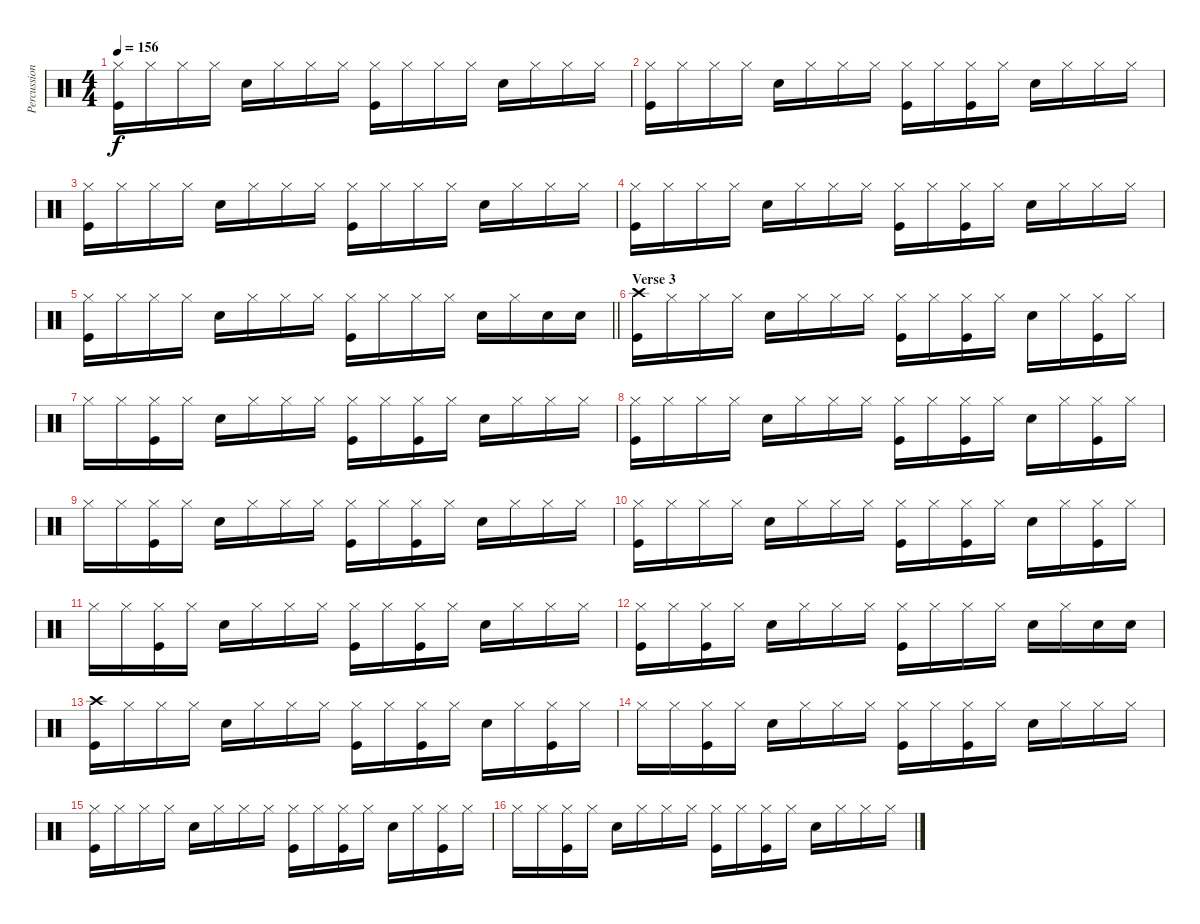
\track ("Percussion" "Percussion") {instrument percussion}
\staff {score}
\articulation defaults
\ts (4 4)
\tempo 156
\clef neutral
\ks c
("Hi-Hat (closed)" "Kick (hit)").16{dy f} "Hi-Hat (closed)".16 "Hi-Hat (closed)".16 "Hi-Hat (closed)".16 "Snare (hit) 2".16 "Hi-Hat (closed)".16 "Hi-Hat (closed)".16 "Hi-Hat (closed)".16 ("Hi-Hat (closed)" "Kick (hit)").16 "Hi-Hat (closed)".16 "Hi-Hat (closed)".16 "Hi-Hat (closed)".16 "Snare (hit) 2".16 "Hi-Hat (closed)".16 "Hi-Hat (closed)".16 "Hi-Hat (closed)".16 |
("Hi-Hat (closed)" "Kick (hit)").16 "Hi-Hat (closed)".16 "Hi-Hat (closed)".16 "Hi-Hat (closed)".16 "Snare (hit) 2".16 "Hi-Hat (closed)".16 "Hi-Hat (closed)".16 "Hi-Hat (closed)".16 ("Hi-Hat (closed)" "Kick (hit)").16 "Hi-Hat (closed)".16 ("Hi-Hat (closed)" "Kick (hit)").16 "Hi-Hat (closed)".16 "Snare (hit) 2".16 "Hi-Hat (closed)".16 "Hi-Hat (closed)".16 "Hi-Hat (closed)".16 |
("Hi-Hat (closed)" "Kick (hit)").16 "Hi-Hat (closed)".16 "Hi-Hat (closed)".16 "Hi-Hat (closed)".16 "Snare (hit) 2".16 "Hi-Hat (closed)".16 "Hi-Hat (closed)".16 "Hi-Hat (closed)".16 ("Hi-Hat (closed)" "Kick (hit)").16 "Hi-Hat (closed)".16 "Hi-Hat (closed)".16 "Hi-Hat (closed)".16 "Snare (hit) 2".16 "Hi-Hat (closed)".16 "Hi-Hat (closed)".16 "Hi-Hat (closed)".16 |
("Hi-Hat (closed)" "Kick (hit)").16 "Hi-Hat (closed)".16 "Hi-Hat (closed)".16 "Hi-Hat (closed)".16 "Snare (hit) 2".16 "Hi-Hat (closed)".16 "Hi-Hat (closed)".16 "Hi-Hat (closed)".16 ("Hi-Hat (closed)" "Kick (hit)").16 "Hi-Hat (closed)".16 ("Hi-Hat (closed)" "Kick (hit)").16 "Hi-Hat (closed)".16 "Snare (hit) 2".16 "Hi-Hat (closed)".16 "Hi-Hat (closed)".16 "Hi-Hat (closed)".16 |
\barLineRight lightlight
("Hi-Hat (closed)" "Kick (hit)").16 "Hi-Hat (closed)".16 "Hi-Hat (closed)".16 "Hi-Hat (closed)".16 "Snare (hit) 2".16 "Hi-Hat (closed)".16 "Hi-Hat (closed)".16 "Hi-Hat (closed)".16 ("Hi-Hat (closed)" "Kick (hit)").16 "Hi-Hat (closed)".16 "Hi-Hat (closed)".16 "Hi-Hat (closed)".16 "Snare (hit) 2".16 "Hi-Hat (closed)".16 "Snare (hit) 2".16 "Snare (hit) 2".16 |
\section ("" "Verse 3")
("Crash high (hit)" "Kick (hit)").16 "Hi-Hat (closed)".16 "Hi-Hat (closed)".16 "Hi-Hat (closed)".16 "Snare (hit) 2".16 "Hi-Hat (closed)".16 "Hi-Hat (closed)".16 "Hi-Hat (closed)".16 ("Hi-Hat (closed)" "Kick (hit)").16 "Hi-Hat (closed)".16 ("Hi-Hat (closed)" "Kick (hit)").16 "Hi-Hat (closed)".16 "Snare (hit) 2".16 "Hi-Hat (closed)".16 ("Hi-Hat (closed)" "Kick (hit)").16 "Hi-Hat (closed)".16 |
"Hi-Hat (closed)".16 "Hi-Hat (closed)".16 ("Hi-Hat (closed)" "Kick (hit)").16 "Hi-Hat (closed)".16 "Snare (hit) 2".16 "Hi-Hat (closed)".16 "Hi-Hat (closed)".16 "Hi-Hat (closed)".16 ("Hi-Hat (closed)" "Kick (hit)").16 "Hi-Hat (closed)".16 ("Hi-Hat (closed)" "Kick (hit)").16 "Hi-Hat (closed)".16 "Snare (hit) 2".16 "Hi-Hat (closed)".16 "Hi-Hat (closed)".16 "Hi-Hat (closed)".16 |
("Hi-Hat (closed)" "Kick (hit)").16 "Hi-Hat (closed)".16 "Hi-Hat (closed)".16 "Hi-Hat (closed)".16 "Snare (hit) 2".16 "Hi-Hat (closed)".16 "Hi-Hat (closed)".16 "Hi-Hat (closed)".16 ("Hi-Hat (closed)" "Kick (hit)").16 "Hi-Hat (closed)".16 ("Hi-Hat (closed)" "Kick (hit)").16 "Hi-Hat (closed)".16 "Snare (hit) 2".16 "Hi-Hat (closed)".16 ("Hi-Hat (closed)" "Kick (hit)").16 "Hi-Hat (closed)".16 |
"Hi-Hat (closed)".16 "Hi-Hat (closed)".16 ("Hi-Hat (closed)" "Kick (hit)").16 "Hi-Hat (closed)".16 "Snare (hit) 2".16 "Hi-Hat (closed)".16 "Hi-Hat (closed)".16 "Hi-Hat (closed)".16 ("Hi-Hat (closed)" "Kick (hit)").16 "Hi-Hat (closed)".16 ("Hi-Hat (closed)" "Kick (hit)").16 "Hi-Hat (closed)".16 "Snare (hit) 2".16 "Hi-Hat (closed)".16 "Hi-Hat (closed)".16 "Hi-Hat (closed)".16 |
("Hi-Hat (closed)" "Kick (hit)").16 "Hi-Hat (closed)".16 "Hi-Hat (closed)".16 "Hi-Hat (closed)".16 "Snare (hit) 2".16 "Hi-Hat (closed)".16 "Hi-Hat (closed)".16 "Hi-Hat (closed)".16 ("Hi-Hat (closed)" "Kick (hit)").16 "Hi-Hat (closed)".16 ("Hi-Hat (closed)" "Kick (hit)").16 "Hi-Hat (closed)".16 "Snare (hit) 2".16 "Hi-Hat (closed)".16 ("Hi-Hat (closed)" "Kick (hit)").16 "Hi-Hat (closed)".16 |
"Hi-Hat (closed)".16 "Hi-Hat (closed)".16 ("Hi-Hat (closed)" "Kick (hit)").16 "Hi-Hat (closed)".16 "Snare (hit) 2".16 "Hi-Hat (closed)".16 "Hi-Hat (closed)".16 "Hi-Hat (closed)".16 ("Hi-Hat (closed)" "Kick (hit)").16 "Hi-Hat (closed)".16 ("Hi-Hat (closed)" "Kick (hit)").16 "Hi-Hat (closed)".16 "Snare (hit) 2".16 "Hi-Hat (closed)".16 "Hi-Hat (closed)".16 "Hi-Hat (closed)".16 |
("Hi-Hat (closed)" "Kick (hit)").16 "Hi-Hat (closed)".16 ("Hi-Hat (closed)" "Kick (hit)").16 "Hi-Hat (closed)".16 "Snare (hit) 2".16 "Hi-Hat (closed)".16 "Hi-Hat (closed)".16 "Hi-Hat (closed)".16 ("Hi-Hat (closed)" "Kick (hit)").16 "Hi-Hat (closed)".16 "Hi-Hat (closed)".16 "Hi-Hat (closed)".16 "Snare (hit) 2".16 "Hi-Hat (closed)".16 "Snare (hit) 2".16 "Snare (hit) 2".16 |
("Crash high (hit)" "Kick (hit)").16 "Hi-Hat (closed)".16 "Hi-Hat (closed)".16 "Hi-Hat (closed)".16 "Snare (hit) 2".16 "Hi-Hat (closed)".16 "Hi-Hat (closed)".16 "Hi-Hat (closed)".16 ("Hi-Hat (closed)" "Kick (hit)").16 "Hi-Hat (closed)".16 ("Hi-Hat (closed)" "Kick (hit)").16 "Hi-Hat (closed)".16 "Snare (hit) 2".16 "Hi-Hat (closed)".16 ("Hi-Hat (closed)" "Kick (hit)").16 "Hi-Hat (closed)".16 |
"Hi-Hat (closed)".16 "Hi-Hat (closed)".16 ("Hi-Hat (closed)" "Kick (hit)").16 "Hi-Hat (closed)".16 "Snare (hit) 2".16 "Hi-Hat (closed)".16 "Hi-Hat (closed)".16 "Hi-Hat (closed)".16 ("Hi-Hat (closed)" "Kick (hit)").16 "Hi-Hat (closed)".16 ("Hi-Hat (closed)" "Kick (hit)").16 "Hi-Hat (closed)".16 "Snare (hit) 2".16 "Hi-Hat (closed)".16 "Hi-Hat (closed)".16 "Hi-Hat (closed)".16 |
("Hi-Hat (closed)" "Kick (hit)").16 "Hi-Hat (closed)".16 "Hi-Hat (closed)".16 "Hi-Hat (closed)".16 "Snare (hit) 2".16 "Hi-Hat (closed)".16 "Hi-Hat (closed)".16 "Hi-Hat (closed)".16 ("Hi-Hat (closed)" "Kick (hit)").16 "Hi-Hat (closed)".16 ("Hi-Hat (closed)" "Kick (hit)").16 "Hi-Hat (closed)".16 "Snare (hit) 2".16 "Hi-Hat (closed)".16 ("Hi-Hat (closed)" "Kick (hit)").16 "Hi-Hat (closed)".16 |
"Hi-Hat (closed)".16 "Hi-Hat (closed)".16 ("Hi-Hat (closed)" "Kick (hit)").16 "Hi-Hat (closed)".16 "Snare (hit) 2".16 "Hi-Hat (closed)".16 "Hi-Hat (closed)".16 "Hi-Hat (closed)".16 ("Hi-Hat (closed)" "Kick (hit)").16 "Hi-Hat (closed)".16 ("Hi-Hat (closed)" "Kick (hit)").16 "Hi-Hat (closed)".16 "Snare (hit) 2".16 "Hi-Hat (closed)".16 "Hi-Hat (closed)".16 "Hi-Hat (closed)".16
